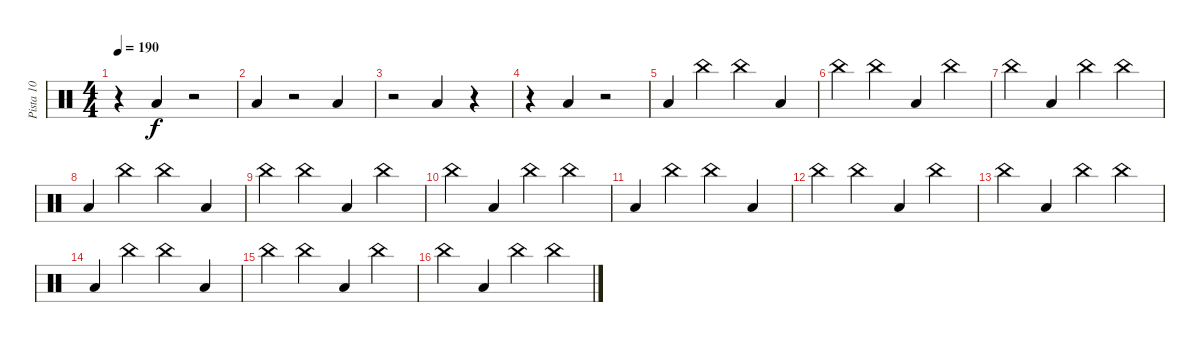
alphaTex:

\track ("Pista 10" "Pista 10") {instrument percussion}
\staff {score}
\articulation defaults
\ts (4 4)
\tempo 190
\clef neutral
\ks c
r.4{dy f} "Low Floor Tom (hit)".4 r.2 |
"Low Floor Tom (hit)".4 r.2 "Low Floor Tom (hit)".4 |
r.2 "Low Floor Tom (hit)".4 r.4 |
r.4 "Low Floor Tom (hit)".4 r.2 |
"Low Floor Tom (hit)".4 "China (hit)".4 "China (hit)".4 "Low Floor Tom (hit)".4 |
"China (hit)".4 "China (hit)".4 "Low Floor Tom (hit)".4 "China (hit)".4 |
"China (hit)".4 "Low Floor Tom (hit)".4 "China (hit)".4 "China (hit)".4 |
"Low Floor Tom (hit)".4 "China (hit)".4 "China (hit)".4 "Low Floor Tom (hit)".4 |
"China (hit)".4 "China (hit)".4 "Low Floor Tom (hit)".4 "China (hit)".4 |
"China (hit)".4 "Low Floor Tom (hit)".4 "China (hit)".4 "China (hit)".4 |
"Low Floor Tom (hit)".4 "China (hit)".4 "China (hit)".4 "Low Floor Tom (hit)".4 |
"China (hit)".4 "China (hit)".4 "Low Floor Tom (hit)".4 "China (hit)".4 |
"China (hit)".4 "Low Floor Tom (hit)".4 "China (hit)".4 "China (hit)".4 |
"Low Floor Tom (hit)".4 "China (hit)".4 "China (hit)".4 "Low Floor Tom (hit)".4 |
"China (hit)".4 "China (hit)".4 "Low Floor Tom (hit)".4 "China (hit)".4 |
"China (hit)".4 "Low Floor Tom (hit)".4 "China (hit)".4 "China (hit)".4
